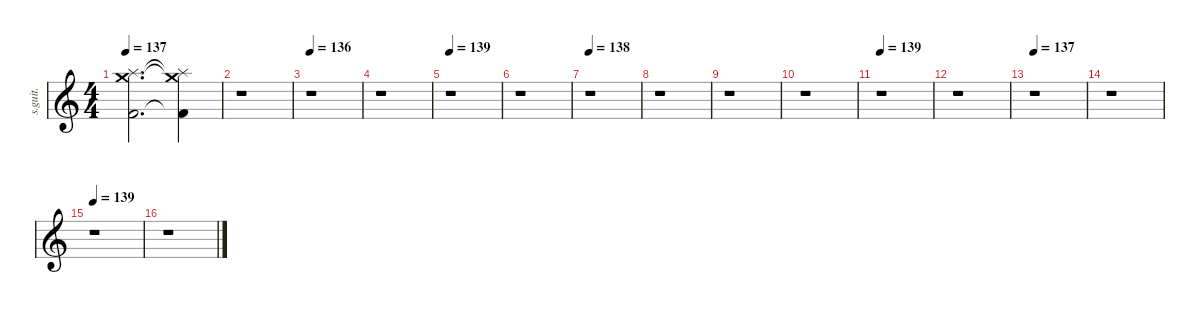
\defaultSystemsLayout 4
\hideDynamics
\bracketExtendMode nobrackets
\track ("Drumkit" "s.guit.") {instrument percussion}
\staff {score}
\articulation defaults
\ts (4 4)
\beaming (8 2 2 2 2)
\tempo 137
\clef g2
\ks c
("Crash medium (hit)" "Splash (hit)" "Kick (hit) 2").2{d lyrics (0 "") lyrics (1 "") lyrics (2 "") lyrics (3 "") lyrics (4 "") dy f} ("Crash medium (hit)"{t} "Splash (hit)"{t} "Kick (hit) 2"{t}).4{lyrics (0 "") lyrics (1 "") lyrics (2 "") lyrics (3 "") lyrics (4 "")} |
r.1 |
\tempo 136
r.1 |
r.1 |
\tempo 139
r.1 |
r.1 |
\tempo 138
r.1 |
r.1 |
r.1 |
r.1 |
\tempo 139
r.1 |
r.1 |
\tempo 137
r.1 |
r.1 |
\tempo 139
r.1 |
r.1
